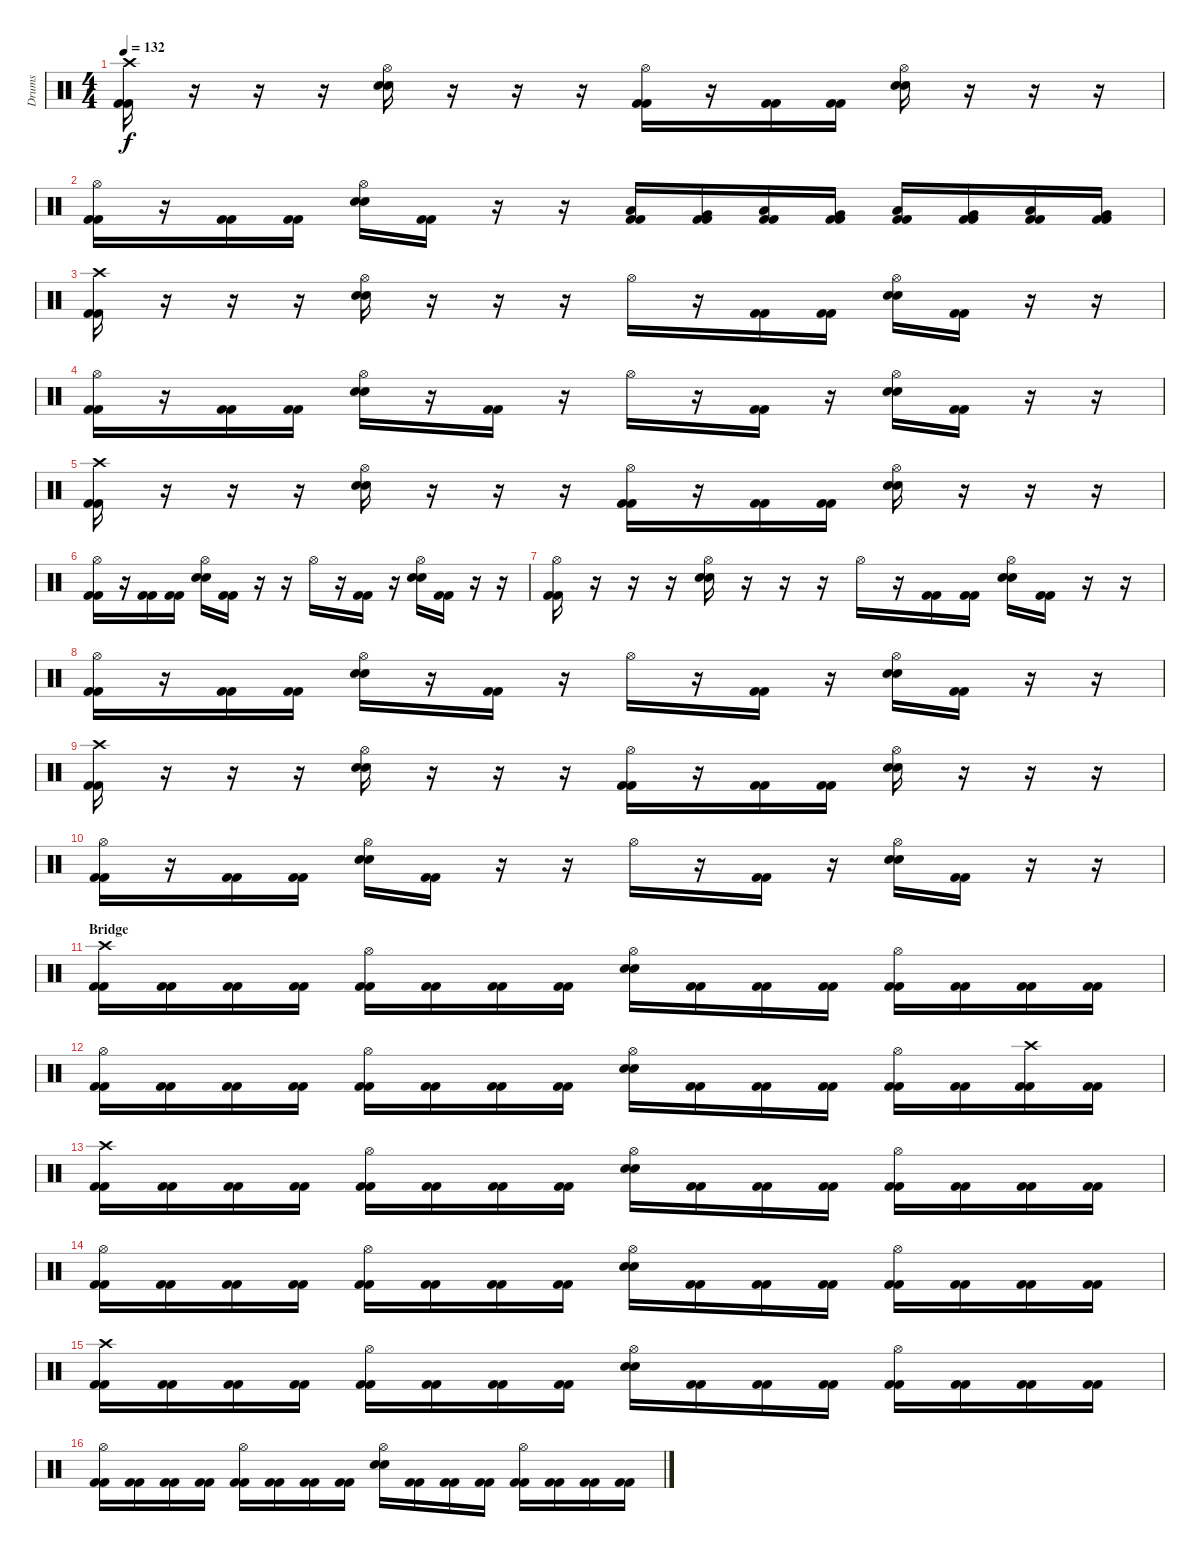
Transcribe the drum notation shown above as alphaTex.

\track ("Drums" "Drums") {instrument percussion}
\staff {score}
\articulation defaults
\ts (4 4)
\tempo 132
\clef neutral
\ks c
("Crash high (hit)" "Kick (hit) 2" "Kick (hit) 2").16{dy f} r.16 r.16 r.16 ("Hi-Hat (open)" "Snare (hit) 2" "Snare (hit) 2").16 r.16 r.16 r.16 ("Hi-Hat (open)" "Kick (hit) 2" "Kick (hit) 2").16 r.16 ("Kick (hit) 2" "Kick (hit) 2").16 ("Kick (hit) 2" "Kick (hit) 2").16 ("Hi-Hat (open)" "Snare (hit) 2" "Snare (hit) 2").16 r.16 r.16 r.16 |
("Hi-Hat (open)" "Kick (hit) 2" "Kick (hit) 2").16 r.16 ("Kick (hit) 2" "Kick (hit) 2").16 ("Kick (hit) 2" "Kick (hit) 2").16 ("Hi-Hat (open)" "Snare (hit) 2" "Snare (hit) 2").16 ("Kick (hit) 2" "Kick (hit) 2").16 r.16 r.16 ("Low Tom (hit)" "Kick (hit) 2" "Kick (hit) 2").16 ("Very Low Tom (hit)" "Kick (hit) 2" "Kick (hit) 2").16 ("Low Tom (hit)" "Kick (hit) 2" "Kick (hit) 2").16 ("Very Low Tom (hit)" "Kick (hit) 2" "Kick (hit) 2").16 ("Low Tom (hit)" "Kick (hit) 2" "Kick (hit) 2").16 ("Very Low Tom (hit)" "Kick (hit) 2" "Kick (hit) 2").16 ("Low Tom (hit)" "Kick (hit) 2" "Kick (hit) 2").16 ("Very Low Tom (hit)" "Kick (hit) 2" "Kick (hit) 2").16 |
("Crash high (hit)" "Kick (hit) 2" "Kick (hit) 2").16 r.16 r.16 r.16 ("Hi-Hat (open)" "Snare (hit) 2" "Snare (hit) 2").16 r.16 r.16 r.16 "Hi-Hat (open)".16 r.16 ("Kick (hit) 2" "Kick (hit) 2").16 ("Kick (hit) 2" "Kick (hit) 2").16 ("Hi-Hat (open)" "Snare (hit) 2" "Snare (hit) 2").16 ("Kick (hit) 2" "Kick (hit) 2").16 r.16 r.16 |
("Hi-Hat (open)" "Kick (hit) 2" "Kick (hit) 2").16 r.16 ("Kick (hit) 2" "Kick (hit) 2").16 ("Kick (hit) 2" "Kick (hit) 2").16 ("Hi-Hat (open)" "Snare (hit) 2" "Snare (hit) 2").16 r.16 ("Kick (hit) 2" "Kick (hit) 2").16 r.16 "Hi-Hat (open)".16 r.16 ("Kick (hit) 2" "Kick (hit) 2").16 r.16 ("Hi-Hat (open)" "Snare (hit) 2" "Snare (hit) 2").16 ("Kick (hit) 2" "Kick (hit) 2").16 r.16 r.16 |
("Crash high (hit)" "Kick (hit) 2" "Kick (hit) 2").16 r.16 r.16 r.16 ("Hi-Hat (open)" "Snare (hit) 2" "Snare (hit) 2").16 r.16 r.16 r.16 ("Hi-Hat (open)" "Kick (hit) 2" "Kick (hit) 2").16 r.16 ("Kick (hit) 2" "Kick (hit) 2").16 ("Kick (hit) 2" "Kick (hit) 2").16 ("Hi-Hat (open)" "Snare (hit) 2" "Snare (hit) 2").16 r.16 r.16 r.16 |
("Hi-Hat (open)" "Kick (hit) 2" "Kick (hit) 2").16 r.16 ("Kick (hit) 2" "Kick (hit) 2").16 ("Kick (hit) 2" "Kick (hit) 2").16 ("Hi-Hat (open)" "Snare (hit) 2" "Snare (hit) 2").16 ("Kick (hit) 2" "Kick (hit) 2").16 r.16 r.16 "Hi-Hat (open)".16 r.16 ("Kick (hit) 2" "Kick (hit) 2").16 r.16 ("Hi-Hat (open)" "Snare (hit) 2" "Snare (hit) 2").16 ("Kick (hit) 2" "Kick (hit) 2").16 r.16 r.16 |
("Hi-Hat (open)" "Kick (hit) 2" "Kick (hit) 2").16 r.16 r.16 r.16 ("Hi-Hat (open)" "Snare (hit) 2" "Snare (hit) 2").16 r.16 r.16 r.16 "Hi-Hat (open)".16 r.16 ("Kick (hit) 2" "Kick (hit) 2").16 ("Kick (hit) 2" "Kick (hit) 2").16 ("Hi-Hat (open)" "Snare (hit) 2" "Snare (hit) 2").16 ("Kick (hit) 2" "Kick (hit) 2").16 r.16 r.16 |
("Hi-Hat (open)" "Kick (hit) 2" "Kick (hit) 2").16 r.16 ("Kick (hit) 2" "Kick (hit) 2").16 ("Kick (hit) 2" "Kick (hit) 2").16 ("Hi-Hat (open)" "Snare (hit) 2" "Snare (hit) 2").16 r.16 ("Kick (hit) 2" "Kick (hit) 2").16 r.16 "Hi-Hat (open)".16 r.16 ("Kick (hit) 2" "Kick (hit) 2").16 r.16 ("Hi-Hat (open)" "Snare (hit) 2" "Snare (hit) 2").16 ("Kick (hit) 2" "Kick (hit) 2").16 r.16 r.16 |
("Crash high (hit)" "Kick (hit) 2" "Kick (hit) 2").16 r.16 r.16 r.16 ("Hi-Hat (open)" "Snare (hit) 2" "Snare (hit) 2").16 r.16 r.16 r.16 ("Hi-Hat (open)" "Kick (hit) 2" "Kick (hit) 2").16 r.16 ("Kick (hit) 2" "Kick (hit) 2").16 ("Kick (hit) 2" "Kick (hit) 2").16 ("Hi-Hat (open)" "Snare (hit) 2" "Snare (hit) 2").16 r.16 r.16 r.16 |
("Hi-Hat (open)" "Kick (hit) 2" "Kick (hit) 2").16 r.16 ("Kick (hit) 2" "Kick (hit) 2").16 ("Kick (hit) 2" "Kick (hit) 2").16 ("Hi-Hat (open)" "Snare (hit) 2" "Snare (hit) 2").16 ("Kick (hit) 2" "Kick (hit) 2").16 r.16 r.16 "Hi-Hat (open)".16 r.16 ("Kick (hit) 2" "Kick (hit) 2").16 r.16 ("Hi-Hat (open)" "Snare (hit) 2" "Snare (hit) 2").16 ("Kick (hit) 2" "Kick (hit) 2").16 r.16 r.16 |
\section ("" "Bridge")
("Crash high (hit)" "Kick (hit) 2" "Kick (hit) 2").16 ("Kick (hit) 2" "Kick (hit) 2").16 ("Kick (hit) 2" "Kick (hit) 2").16 ("Kick (hit) 2" "Kick (hit) 2").16 ("Hi-Hat (open)" "Kick (hit) 2" "Kick (hit) 2").16 ("Kick (hit) 2" "Kick (hit) 2").16 ("Kick (hit) 2" "Kick (hit) 2").16 ("Kick (hit) 2" "Kick (hit) 2").16 ("Hi-Hat (open)" "Snare (hit) 2" "Snare (hit) 2").16 ("Kick (hit) 2" "Kick (hit) 2").16 ("Kick (hit) 2" "Kick (hit) 2").16 ("Kick (hit) 2" "Kick (hit) 2").16 ("Hi-Hat (open)" "Kick (hit) 2" "Kick (hit) 2").16 ("Kick (hit) 2" "Kick (hit) 2").16 ("Kick (hit) 2" "Kick (hit) 2").16 ("Kick (hit) 2" "Kick (hit) 2").16 |
("Hi-Hat (open)" "Kick (hit) 2" "Kick (hit) 2").16 ("Kick (hit) 2" "Kick (hit) 2").16 ("Kick (hit) 2" "Kick (hit) 2").16 ("Kick (hit) 2" "Kick (hit) 2").16 ("Hi-Hat (open)" "Kick (hit) 2" "Kick (hit) 2").16 ("Kick (hit) 2" "Kick (hit) 2").16 ("Kick (hit) 2" "Kick (hit) 2").16 ("Kick (hit) 2" "Kick (hit) 2").16 ("Hi-Hat (open)" "Snare (hit) 2" "Snare (hit) 2").16 ("Kick (hit) 2" "Kick (hit) 2").16 ("Kick (hit) 2" "Kick (hit) 2").16 ("Kick (hit) 2" "Kick (hit) 2").16 ("Hi-Hat (open)" "Kick (hit) 2" "Kick (hit) 2").16 ("Kick (hit) 2" "Kick (hit) 2").16 ("Crash high (hit)" "Kick (hit) 2" "Kick (hit) 2").16 ("Kick (hit) 2" "Kick (hit) 2").16 |
("Crash high (hit)" "Kick (hit) 2" "Kick (hit) 2").16 ("Kick (hit) 2" "Kick (hit) 2").16 ("Kick (hit) 2" "Kick (hit) 2").16 ("Kick (hit) 2" "Kick (hit) 2").16 ("Hi-Hat (open)" "Kick (hit) 2" "Kick (hit) 2").16 ("Kick (hit) 2" "Kick (hit) 2").16 ("Kick (hit) 2" "Kick (hit) 2").16 ("Kick (hit) 2" "Kick (hit) 2").16 ("Hi-Hat (open)" "Snare (hit) 2" "Snare (hit) 2").16 ("Kick (hit) 2" "Kick (hit) 2").16 ("Kick (hit) 2" "Kick (hit) 2").16 ("Kick (hit) 2" "Kick (hit) 2").16 ("Hi-Hat (open)" "Kick (hit) 2" "Kick (hit) 2").16 ("Kick (hit) 2" "Kick (hit) 2").16 ("Kick (hit) 2" "Kick (hit) 2").16 ("Kick (hit) 2" "Kick (hit) 2").16 |
("Hi-Hat (open)" "Kick (hit) 2" "Kick (hit) 2").16 ("Kick (hit) 2" "Kick (hit) 2").16 ("Kick (hit) 2" "Kick (hit) 2").16 ("Kick (hit) 2" "Kick (hit) 2").16 ("Hi-Hat (open)" "Kick (hit) 2" "Kick (hit) 2").16 ("Kick (hit) 2" "Kick (hit) 2").16 ("Kick (hit) 2" "Kick (hit) 2").16 ("Kick (hit) 2" "Kick (hit) 2").16 ("Hi-Hat (open)" "Snare (hit) 2" "Snare (hit) 2").16 ("Kick (hit) 2" "Kick (hit) 2").16 ("Kick (hit) 2" "Kick (hit) 2").16 ("Kick (hit) 2" "Kick (hit) 2").16 ("Hi-Hat (open)" "Kick (hit) 2" "Kick (hit) 2").16 ("Kick (hit) 2" "Kick (hit) 2").16 ("Kick (hit) 2" "Kick (hit) 2").16 ("Kick (hit) 2" "Kick (hit) 2").16 |
("Crash high (hit)" "Kick (hit) 2" "Kick (hit) 2").16 ("Kick (hit) 2" "Kick (hit) 2").16 ("Kick (hit) 2" "Kick (hit) 2").16 ("Kick (hit) 2" "Kick (hit) 2").16 ("Hi-Hat (open)" "Kick (hit) 2" "Kick (hit) 2").16 ("Kick (hit) 2" "Kick (hit) 2").16 ("Kick (hit) 2" "Kick (hit) 2").16 ("Kick (hit) 2" "Kick (hit) 2").16 ("Hi-Hat (open)" "Snare (hit) 2" "Snare (hit) 2").16 ("Kick (hit) 2" "Kick (hit) 2").16 ("Kick (hit) 2" "Kick (hit) 2").16 ("Kick (hit) 2" "Kick (hit) 2").16 ("Hi-Hat (open)" "Kick (hit) 2" "Kick (hit) 2").16 ("Kick (hit) 2" "Kick (hit) 2").16 ("Kick (hit) 2" "Kick (hit) 2").16 ("Kick (hit) 2" "Kick (hit) 2").16 |
("Hi-Hat (open)" "Kick (hit) 2" "Kick (hit) 2").16 ("Kick (hit) 2" "Kick (hit) 2").16 ("Kick (hit) 2" "Kick (hit) 2").16 ("Kick (hit) 2" "Kick (hit) 2").16 ("Hi-Hat (open)" "Kick (hit) 2" "Kick (hit) 2").16 ("Kick (hit) 2" "Kick (hit) 2").16 ("Kick (hit) 2" "Kick (hit) 2").16 ("Kick (hit) 2" "Kick (hit) 2").16 ("Hi-Hat (open)" "Snare (hit) 2" "Snare (hit) 2").16 ("Kick (hit) 2" "Kick (hit) 2").16 ("Kick (hit) 2" "Kick (hit) 2").16 ("Kick (hit) 2" "Kick (hit) 2").16 ("Hi-Hat (open)" "Kick (hit) 2" "Kick (hit) 2").16 ("Kick (hit) 2" "Kick (hit) 2").16 ("Kick (hit) 2" "Kick (hit) 2").16 ("Kick (hit) 2" "Kick (hit) 2").16
